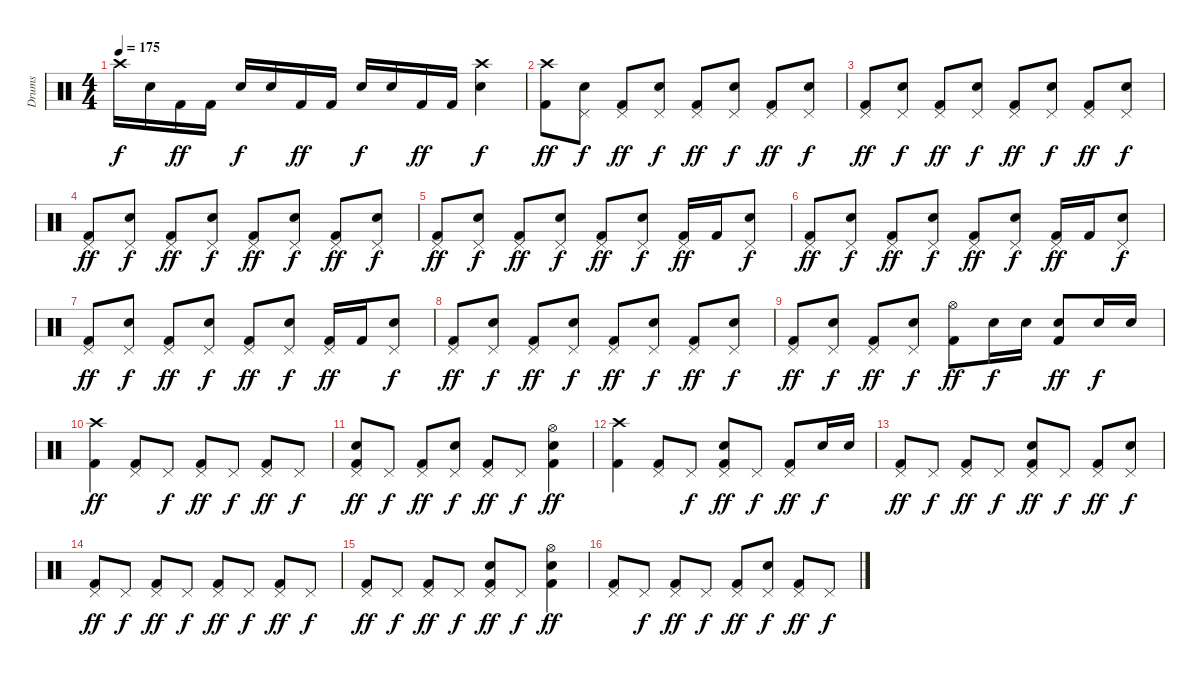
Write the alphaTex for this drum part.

\track ("Drums" "Drums") {instrument percussion}
\staff {score}
\articulation defaults
\ts (4 4)
\tempo 175
\clef neutral
\ks c "Crash high (hit)".16{dy f} "Electric Snare (hit)".16 "Kick (hit) 2".16{dy ff} "Kick (hit) 2".16 "Electric Snare (hit)".16{dy f} "Electric Snare (hit)".16 "Kick (hit) 2".16{dy ff} "Kick (hit) 2".16 "Electric Snare (hit)".16{dy f} "Electric Snare (hit)".16 "Kick (hit) 2".16{dy ff} "Kick (hit) 2".16
("Crash high (hit)" "Electric Snare (hit)").4{dy f} |
("Crash high (hit)" "Kick (hit) 2").8{dy ff} ("Pedal Hi-Hat (hit)" "Electric Snare (hit)").8{dy f} ("Pedal Hi-Hat (hit)" "Kick (hit) 2").8{dy ff} ("Pedal Hi-Hat (hit)" "Electric Snare (hit)").8{dy f} ("Pedal Hi-Hat (hit)" "Kick (hit) 2").8{dy ff} ("Pedal Hi-Hat (hit)" "Electric Snare (hit)").8{dy f} ("Pedal Hi-Hat (hit)" "Kick (hit) 2").8{dy ff} ("Pedal Hi-Hat (hit)" "Electric Snare (hit)").8{dy f} |
("Pedal Hi-Hat (hit)" "Kick (hit) 2").8{dy ff} ("Pedal Hi-Hat (hit)" "Electric Snare (hit)").8{dy f} ("Pedal Hi-Hat (hit)" "Kick (hit) 2").8{dy ff} ("Pedal Hi-Hat (hit)" "Electric Snare (hit)").8{dy f} ("Pedal Hi-Hat (hit)" "Kick (hit) 2").8{dy ff} ("Pedal Hi-Hat (hit)" "Electric Snare (hit)").8{dy f} ("Pedal Hi-Hat (hit)" "Kick (hit) 2").8{dy ff} ("Pedal Hi-Hat (hit)" "Electric Snare (hit)").8{dy f} |
("Pedal Hi-Hat (hit)" "Kick (hit) 2").8{dy ff} ("Pedal Hi-Hat (hit)" "Electric Snare (hit)").8{dy f} ("Pedal Hi-Hat (hit)" "Kick (hit) 2").8{dy ff} ("Pedal Hi-Hat (hit)" "Electric Snare (hit)").8{dy f} ("Pedal Hi-Hat (hit)" "Kick (hit) 2").8{dy ff} ("Pedal Hi-Hat (hit)" "Electric Snare (hit)").8{dy f} ("Pedal Hi-Hat (hit)" "Kick (hit) 2").8{dy ff} ("Pedal Hi-Hat (hit)" "Electric Snare (hit)").8{dy f} |
("Pedal Hi-Hat (hit)" "Kick (hit) 2").8{dy ff} ("Pedal Hi-Hat (hit)" "Electric Snare (hit)").8{dy f} ("Pedal Hi-Hat (hit)" "Kick (hit) 2").8{dy ff} ("Pedal Hi-Hat (hit)" "Electric Snare (hit)").8{dy f} ("Pedal Hi-Hat (hit)" "Kick (hit) 2").8{dy ff} ("Pedal Hi-Hat (hit)" "Electric Snare (hit)").8{dy f} ("Pedal Hi-Hat (hit)" "Kick (hit) 2").16{dy ff} "Kick (hit) 2".16 ("Pedal Hi-Hat (hit)" "Electric Snare (hit)").8{dy f} |
("Pedal Hi-Hat (hit)" "Kick (hit) 2").8{dy ff} ("Pedal Hi-Hat (hit)" "Electric Snare (hit)").8{dy f} ("Pedal Hi-Hat (hit)" "Kick (hit) 2").8{dy ff} ("Pedal Hi-Hat (hit)" "Electric Snare (hit)").8{dy f} ("Pedal Hi-Hat (hit)" "Kick (hit) 2").8{dy ff} ("Pedal Hi-Hat (hit)" "Electric Snare (hit)").8{dy f} ("Pedal Hi-Hat (hit)" "Kick (hit) 2").16{dy ff} "Kick (hit) 2".16 ("Pedal Hi-Hat (hit)" "Electric Snare (hit)").8{dy f} |
("Pedal Hi-Hat (hit)" "Kick (hit) 2").8{dy ff} ("Pedal Hi-Hat (hit)" "Electric Snare (hit)").8{dy f} ("Pedal Hi-Hat (hit)" "Kick (hit) 2").8{dy ff} ("Pedal Hi-Hat (hit)" "Electric Snare (hit)").8{dy f} ("Pedal Hi-Hat (hit)" "Kick (hit) 2").8{dy ff} ("Pedal Hi-Hat (hit)" "Electric Snare (hit)").8{dy f} ("Pedal Hi-Hat (hit)" "Kick (hit) 2").16{dy ff} "Kick (hit) 2".16 ("Pedal Hi-Hat (hit)" "Electric Snare (hit)").8{dy f} |
("Pedal Hi-Hat (hit)" "Kick (hit) 2").8{dy ff} ("Pedal Hi-Hat (hit)" "Electric Snare (hit)").8{dy f} ("Pedal Hi-Hat (hit)" "Kick (hit) 2").8{dy ff} ("Pedal Hi-Hat (hit)" "Electric Snare (hit)").8{dy f} ("Pedal Hi-Hat (hit)" "Kick (hit) 2").8{dy ff} ("Pedal Hi-Hat (hit)" "Electric Snare (hit)").8{dy f} ("Pedal Hi-Hat (hit)" "Kick (hit) 2").8{dy ff} ("Pedal Hi-Hat (hit)" "Electric Snare (hit)").8{dy f} |
("Pedal Hi-Hat (hit)" "Kick (hit) 2").8{dy ff} ("Pedal Hi-Hat (hit)" "Electric Snare (hit)").8{dy f} ("Pedal Hi-Hat (hit)" "Kick (hit) 2").8{dy ff} ("Pedal Hi-Hat (hit)" "Electric Snare (hit)").8{dy f} ("Hi-Hat (open)" "Kick (hit) 2").8{dy ff} "Electric Snare (hit)".16{dy f} "Electric Snare (hit)".16 ("Electric Snare (hit)" "Kick (hit) 2").8{dy ff} "Electric Snare (hit)".16{dy f} "Electric Snare (hit)".16 |
("Crash high (hit)" "Kick (hit) 2").4{dy ff} ("Pedal Hi-Hat (hit)" "Kick (hit) 2").8 "Pedal Hi-Hat (hit)".8{dy f} ("Pedal Hi-Hat (hit)" "Kick (hit) 2").8{dy ff} "Pedal Hi-Hat (hit)".8{dy f} ("Pedal Hi-Hat (hit)" "Kick (hit) 2").8{dy ff} "Pedal Hi-Hat (hit)".8{dy f} |
("Pedal Hi-Hat (hit)" "Electric Snare (hit)" "Kick (hit) 2").8{dy ff} "Pedal Hi-Hat (hit)".8{dy f} ("Pedal Hi-Hat (hit)" "Kick (hit) 2").8{dy ff} ("Pedal Hi-Hat (hit)" "Electric Snare (hit)").8{dy f} ("Pedal Hi-Hat (hit)" "Kick (hit) 2").8{dy ff} "Pedal Hi-Hat (hit)".8{dy f} ("Hi-Hat (open)" "Electric Snare (hit)" "Kick (hit) 2").4{dy ff} |
("Crash high (hit)" "Kick (hit) 2").4 ("Pedal Hi-Hat (hit)" "Kick (hit) 2").8 "Pedal Hi-Hat (hit)".8{dy f} ("Pedal Hi-Hat (hit)" "Electric Snare (hit)" "Kick (hit) 2").8{dy ff} "Pedal Hi-Hat (hit)".8{dy f} ("Pedal Hi-Hat (hit)" "Kick (hit) 2").8{dy ff} "Electric Snare (hit)".16{dy f} "Electric Snare (hit)".16 |
("Pedal Hi-Hat (hit)" "Kick (hit) 2").8{dy ff} "Pedal Hi-Hat (hit)".8{dy f} ("Pedal Hi-Hat (hit)" "Kick (hit) 2").8{dy ff} "Pedal Hi-Hat (hit)".8{dy f} ("Pedal Hi-Hat (hit)" "Electric Snare (hit)" "Kick (hit) 2").8{dy ff} "Pedal Hi-Hat (hit)".8{dy f} ("Pedal Hi-Hat (hit)" "Kick (hit) 2").8{dy ff} ("Pedal Hi-Hat (hit)" "Electric Snare (hit)").8{dy f} |
("Pedal Hi-Hat (hit)" "Kick (hit) 2").8{dy ff} "Pedal Hi-Hat (hit)".8{dy f} ("Pedal Hi-Hat (hit)" "Kick (hit) 2").8{dy ff} "Pedal Hi-Hat (hit)".8{dy f} ("Pedal Hi-Hat (hit)" "Kick (hit) 2").8{dy ff} "Pedal Hi-Hat (hit)".8{dy f} ("Pedal Hi-Hat (hit)" "Kick (hit) 2").8{dy ff} "Pedal Hi-Hat (hit)".8{dy f} |
("Pedal Hi-Hat (hit)" "Kick (hit) 2").8{dy ff} "Pedal Hi-Hat (hit)".8{dy f} ("Pedal Hi-Hat (hit)" "Kick (hit) 2").8{dy ff} "Pedal Hi-Hat (hit)".8{dy f} ("Pedal Hi-Hat (hit)" "Electric Snare (hit)" "Kick (hit) 2").8{dy ff} "Pedal Hi-Hat (hit)".8{dy f} ("Hi-Hat (open)" "Electric Snare (hit)" "Kick (hit) 2").4{dy ff} |
("Pedal Hi-Hat (hit)" "Kick (hit) 2").8 "Pedal Hi-Hat (hit)".8{dy f} ("Pedal Hi-Hat (hit)" "Kick (hit) 2").8{dy ff} "Pedal Hi-Hat (hit)".8{dy f} ("Pedal Hi-Hat (hit)" "Kick (hit) 2").8{dy ff} ("Pedal Hi-Hat (hit)" "Electric Snare (hit)").8{dy f} ("Pedal Hi-Hat (hit)" "Kick (hit) 2").8{dy ff} "Pedal Hi-Hat (hit)".8{dy f}
